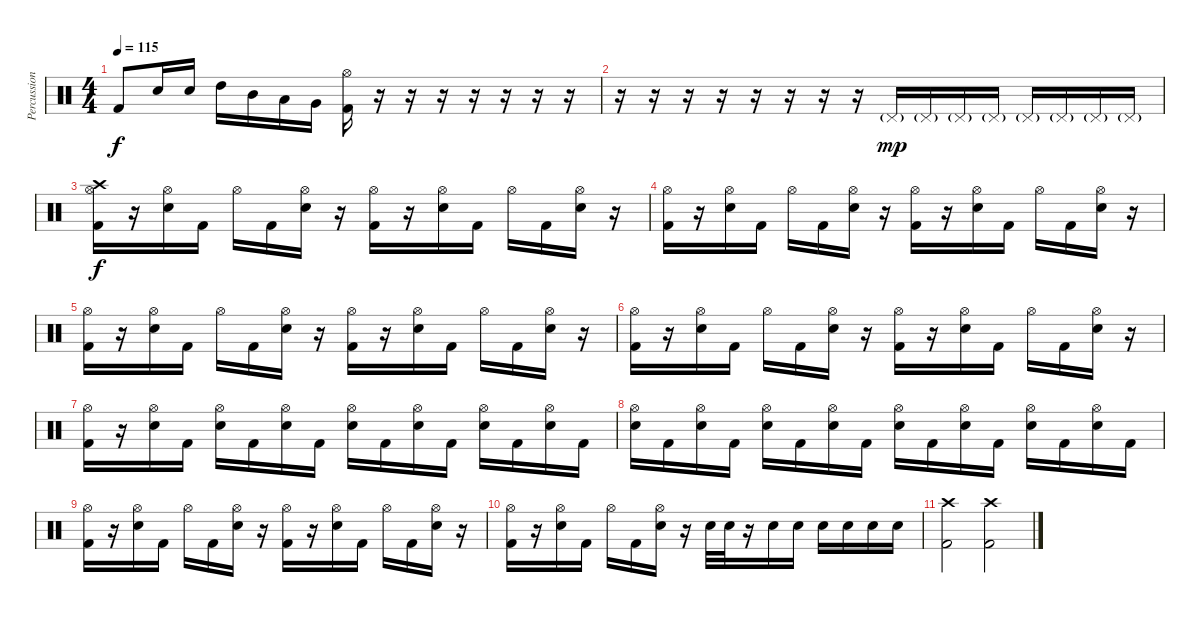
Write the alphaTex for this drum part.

\track ("Percussion" "Percussion") {instrument percussion}
\staff {score}
\articulation defaults
\ts (4 4)
\tempo 115
\clef neutral
\ks c "Kick (hit) 2".8{dy f} "Electric Snare (hit)".16 "Electric Snare (hit)".16 "High Tom (hit)".16 "Mid Tom (hit)".16 "Low Tom (hit)".16 "Very Low Tom (hit)".16
("Hi-Hat (open)" "Kick (hit) 2").16 r.16 r.16 r.16 r.16 r.16 r.16 r.16 |
r.16 r.16 r.16 r.16 r.16 r.16 r.16 r.16 "Pedal Hi-Hat (hit)"{g}.16{dy mp} "Pedal Hi-Hat (hit)"{g}.16 "Pedal Hi-Hat (hit)"{g}.16 "Pedal Hi-Hat (hit)"{g}.16 "Pedal Hi-Hat (hit)"{g}.16 "Pedal Hi-Hat (hit)"{g}.16 "Pedal Hi-Hat (hit)"{g}.16 "Pedal Hi-Hat (hit)"{g}.16 |
("Hi-Hat (open)" "Crash high (hit)" "Kick (hit) 2").16{dy f} r.16 ("Hi-Hat (open)" "Electric Snare (hit)").16 "Kick (hit) 2".16 "Hi-Hat (open)".16 "Kick (hit) 2".16 ("Hi-Hat (open)" "Electric Snare (hit)").16 r.16 ("Hi-Hat (open)" "Kick (hit) 2").16 r.16 ("Hi-Hat (open)" "Electric Snare (hit)").16 "Kick (hit) 2".16 "Hi-Hat (open)".16 "Kick (hit) 2".16 ("Hi-Hat (open)" "Electric Snare (hit)").16 r.16 |
("Hi-Hat (open)" "Kick (hit) 2").16 r.16 ("Hi-Hat (open)" "Electric Snare (hit)").16 "Kick (hit) 2".16 "Hi-Hat (open)".16 "Kick (hit) 2".16 ("Hi-Hat (open)" "Electric Snare (hit)").16 r.16 ("Hi-Hat (open)" "Kick (hit) 2").16 r.16 ("Hi-Hat (open)" "Electric Snare (hit)").16 "Kick (hit) 2".16 "Hi-Hat (open)".16 "Kick (hit) 2".16 ("Hi-Hat (open)" "Electric Snare (hit)").16 r.16 |
("Hi-Hat (open)" "Kick (hit) 2").16 r.16 ("Hi-Hat (open)" "Electric Snare (hit)").16 "Kick (hit) 2".16 "Hi-Hat (open)".16 "Kick (hit) 2".16 ("Hi-Hat (open)" "Electric Snare (hit)").16 r.16 ("Hi-Hat (open)" "Kick (hit) 2").16 r.16 ("Hi-Hat (open)" "Electric Snare (hit)").16 "Kick (hit) 2".16 "Hi-Hat (open)".16 "Kick (hit) 2".16 ("Hi-Hat (open)" "Electric Snare (hit)").16 r.16 |
("Hi-Hat (open)" "Kick (hit) 2").16 r.16 ("Hi-Hat (open)" "Electric Snare (hit)").16 "Kick (hit) 2".16 "Hi-Hat (open)".16 "Kick (hit) 2".16 ("Hi-Hat (open)" "Electric Snare (hit)").16 r.16 ("Hi-Hat (open)" "Kick (hit) 2").16 r.16 ("Hi-Hat (open)" "Electric Snare (hit)").16 "Kick (hit) 2".16 "Hi-Hat (open)".16 "Kick (hit) 2".16 ("Hi-Hat (open)" "Electric Snare (hit)").16 r.16 |
("Hi-Hat (open)" "Kick (hit) 2").16 r.16 ("Hi-Hat (open)" "Electric Snare (hit)").16 "Kick (hit) 2".16 ("Hi-Hat (open)" "Electric Snare (hit)").16 "Kick (hit) 2".16 ("Hi-Hat (open)" "Electric Snare (hit)").16 "Kick (hit) 2".16 ("Hi-Hat (open)" "Electric Snare (hit)").16 "Kick (hit) 2".16 ("Hi-Hat (open)" "Electric Snare (hit)").16 "Kick (hit) 2".16 ("Hi-Hat (open)" "Electric Snare (hit)").16 "Kick (hit) 2".16 ("Hi-Hat (open)" "Electric Snare (hit)").16 "Kick (hit) 2".16 |
("Hi-Hat (open)" "Electric Snare (hit)").16 "Kick (hit) 2".16 ("Hi-Hat (open)" "Electric Snare (hit)").16 "Kick (hit) 2".16 ("Hi-Hat (open)" "Electric Snare (hit)").16 "Kick (hit) 2".16 ("Hi-Hat (open)" "Electric Snare (hit)").16 "Kick (hit) 2".16 ("Hi-Hat (open)" "Electric Snare (hit)").16 "Kick (hit) 2".16 ("Hi-Hat (open)" "Electric Snare (hit)").16 "Kick (hit) 2".16 ("Hi-Hat (open)" "Electric Snare (hit)").16 "Kick (hit) 2".16 ("Hi-Hat (open)" "Electric Snare (hit)").16 "Kick (hit) 2".16 |
("Hi-Hat (open)" "Kick (hit) 2").16 r.16 ("Hi-Hat (open)" "Electric Snare (hit)").16 "Kick (hit) 2".16 "Hi-Hat (open)".16 "Kick (hit) 2".16 ("Hi-Hat (open)" "Electric Snare (hit)").16 r.16 ("Hi-Hat (open)" "Kick (hit) 2").16 r.16 ("Hi-Hat (open)" "Electric Snare (hit)").16 "Kick (hit) 2".16 "Hi-Hat (open)".16 "Kick (hit) 2".16 ("Hi-Hat (open)" "Electric Snare (hit)").16 r.16 |
("Hi-Hat (open)" "Kick (hit) 2").16 r.16 ("Hi-Hat (open)" "Electric Snare (hit)").16 "Kick (hit) 2".16 "Hi-Hat (open)".16 "Kick (hit) 2".16 ("Hi-Hat (open)" "Electric Snare (hit)").16 r.16 "Electric Snare (hit)".32 "Electric Snare (hit)".32 r.16 "Electric Snare (hit)".16 "Electric Snare (hit)".16 "Electric Snare (hit)".16 "Electric Snare (hit)".16 "Electric Snare (hit)".16 "Electric Snare (hit)".16 |
("Crash high (hit)" "Kick (hit) 2").2 ("Crash high (hit)" "Kick (hit) 2").2
